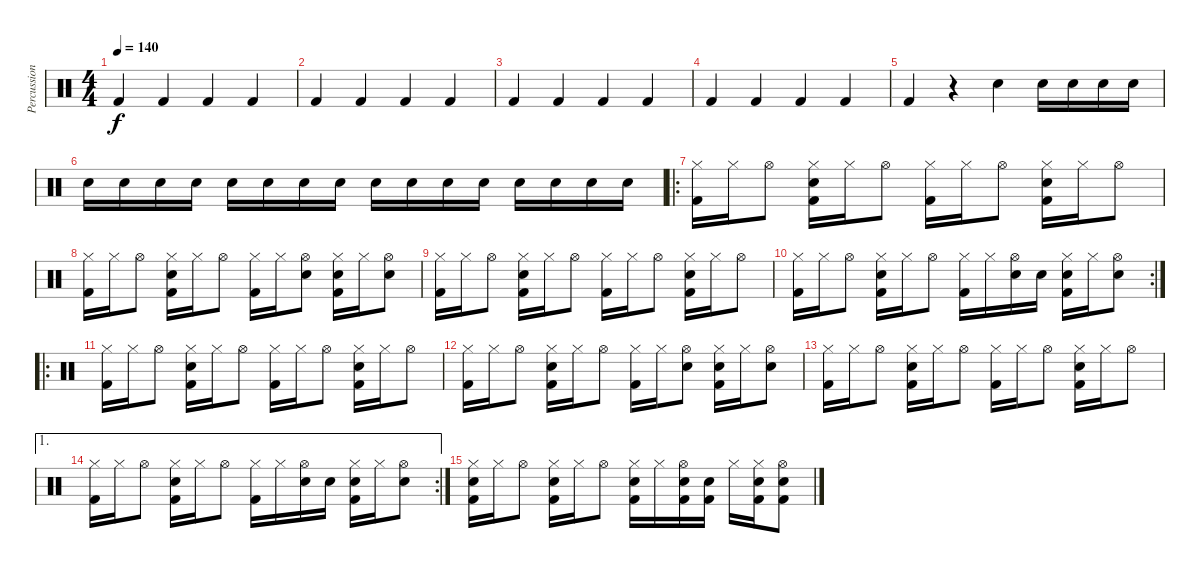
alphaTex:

\track ("Percussion" "Percussion") {instrument percussion}
\staff {score}
\articulation defaults
\ts (4 4)
\tempo 140
\clef neutral
\ks c "Kick (hit) 2".4{dy f} "Kick (hit) 2".4 "Kick (hit) 2".4 "Kick (hit) 2".4
|
"Kick (hit) 2".4 "Kick (hit) 2".4 "Kick (hit) 2".4 "Kick (hit) 2".4 |
"Kick (hit) 2".4 "Kick (hit) 2".4 "Kick (hit) 2".4 "Kick (hit) 2".4 |
"Kick (hit) 2".4 "Kick (hit) 2".4 "Kick (hit) 2".4 "Kick (hit) 2".4 |
"Kick (hit) 2".4 r.4 "Snare (hit) 2".4 "Snare (hit) 2".16{volume 5} "Snare (hit) 2".16{volume 13} "Snare (hit) 2".16 "Snare (hit) 2".16 |
"Snare (hit) 2".16 "Snare (hit) 2".16 "Snare (hit) 2".16 "Snare (hit) 2".16 "Snare (hit) 2".16 "Snare (hit) 2".16 "Snare (hit) 2".16 "Snare (hit) 2".16 "Snare (hit) 2".16 "Snare (hit) 2".16 "Snare (hit) 2".16 "Snare (hit) 2".16 "Snare (hit) 2".16 "Snare (hit) 2".16 "Snare (hit) 2".16 "Snare (hit) 2".16 |
\ro
("Hi-Hat (closed)" "Kick (hit) 2").16 "Hi-Hat (closed)".16 "Hi-Hat (open)".8 ("Hi-Hat (closed)" "Electric Snare (hit)" "Kick (hit) 2").16 "Hi-Hat (closed)".16 "Hi-Hat (open)".8 ("Hi-Hat (closed)" "Kick (hit) 2").16 "Hi-Hat (closed)".16 "Hi-Hat (open)".8 ("Hi-Hat (closed)" "Electric Snare (hit)" "Kick (hit) 2").16 "Hi-Hat (closed)".16 "Hi-Hat (open)".8 |
("Hi-Hat (closed)" "Kick (hit) 2").16 "Hi-Hat (closed)".16 "Hi-Hat (open)".8 ("Hi-Hat (closed)" "Electric Snare (hit)" "Kick (hit) 2").16 "Hi-Hat (closed)".16 "Hi-Hat (open)".8 ("Hi-Hat (closed)" "Kick (hit) 2").16 "Hi-Hat (closed)".16 ("Hi-Hat (open)" "Electric Snare (hit)").8 ("Hi-Hat (closed)" "Electric Snare (hit)" "Kick (hit) 2").16 "Hi-Hat (closed)".16 ("Hi-Hat (open)" "Electric Snare (hit)").8 |
("Hi-Hat (closed)" "Kick (hit) 2").16 "Hi-Hat (closed)".16 "Hi-Hat (open)".8 ("Hi-Hat (closed)" "Electric Snare (hit)" "Kick (hit) 2").16 "Hi-Hat (closed)".16 "Hi-Hat (open)".8 ("Hi-Hat (closed)" "Kick (hit) 2").16 "Hi-Hat (closed)".16 "Hi-Hat (open)".8 ("Hi-Hat (closed)" "Electric Snare (hit)" "Kick (hit) 2").16 "Hi-Hat (closed)".16 "Hi-Hat (open)".8 |
\rc 2
("Hi-Hat (closed)" "Kick (hit) 2").16 "Hi-Hat (closed)".16 "Hi-Hat (open)".8 ("Hi-Hat (closed)" "Electric Snare (hit)" "Kick (hit) 2").16 "Hi-Hat (closed)".16 "Hi-Hat (open)".8 ("Hi-Hat (closed)" "Kick (hit) 2").16 "Hi-Hat (closed)".16 ("Hi-Hat (open)" "Electric Snare (hit)").16 "Electric Snare (hit)".16 ("Hi-Hat (closed)" "Electric Snare (hit)" "Kick (hit) 2").16 "Hi-Hat (closed)".16 ("Hi-Hat (open)" "Electric Snare (hit)").8 |
\ro
("Hi-Hat (closed)" "Kick (hit) 2").16 "Hi-Hat (closed)".16 "Hi-Hat (open)".8 ("Hi-Hat (closed)" "Electric Snare (hit)" "Kick (hit) 2").16 "Hi-Hat (closed)".16 "Hi-Hat (open)".8 ("Hi-Hat (closed)" "Kick (hit) 2").16 "Hi-Hat (closed)".16 "Hi-Hat (open)".8 ("Hi-Hat (closed)" "Electric Snare (hit)" "Kick (hit) 2").16 "Hi-Hat (closed)".16 "Hi-Hat (open)".8 |
("Hi-Hat (closed)" "Kick (hit) 2").16 "Hi-Hat (closed)".16 "Hi-Hat (open)".8 ("Hi-Hat (closed)" "Electric Snare (hit)" "Kick (hit) 2").16 "Hi-Hat (closed)".16 "Hi-Hat (open)".8 ("Hi-Hat (closed)" "Kick (hit) 2").16 "Hi-Hat (closed)".16 ("Hi-Hat (open)" "Electric Snare (hit)").8 ("Hi-Hat (closed)" "Electric Snare (hit)" "Kick (hit) 2").16 "Hi-Hat (closed)".16 ("Hi-Hat (open)" "Electric Snare (hit)").8 |
("Hi-Hat (closed)" "Kick (hit) 2").16 "Hi-Hat (closed)".16 "Hi-Hat (open)".8 ("Hi-Hat (closed)" "Electric Snare (hit)" "Kick (hit) 2").16 "Hi-Hat (closed)".16 "Hi-Hat (open)".8 ("Hi-Hat (closed)" "Kick (hit) 2").16 "Hi-Hat (closed)".16 "Hi-Hat (open)".8 ("Hi-Hat (closed)" "Electric Snare (hit)" "Kick (hit) 2").16 "Hi-Hat (closed)".16 "Hi-Hat (open)".8 |
\ae 1
\rc 2
("Hi-Hat (closed)" "Kick (hit) 2").16 "Hi-Hat (closed)".16 "Hi-Hat (open)".8 ("Hi-Hat (closed)" "Electric Snare (hit)" "Kick (hit) 2").16 "Hi-Hat (closed)".16 "Hi-Hat (open)".8 ("Hi-Hat (closed)" "Kick (hit) 2").16 "Hi-Hat (closed)".16 ("Hi-Hat (open)" "Electric Snare (hit)").16 "Electric Snare (hit)".16 ("Hi-Hat (closed)" "Electric Snare (hit)" "Kick (hit) 2").16 "Hi-Hat (closed)".16 ("Hi-Hat (open)" "Electric Snare (hit)").8 |
("Hi-Hat (closed)" "Electric Snare (hit)" "Kick (hit) 2").16 "Hi-Hat (closed)".16 "Hi-Hat (open)".8 ("Hi-Hat (closed)" "Electric Snare (hit)" "Kick (hit) 2").16 "Hi-Hat (closed)".16 "Hi-Hat (open)".8 ("Hi-Hat (closed)" "Electric Snare (hit)" "Kick (hit) 2").16 "Hi-Hat (closed)".16 ("Hi-Hat (open)" "Electric Snare (hit)" "Kick (hit) 2").16 ("Electric Snare (hit)" "Kick (hit) 2").16 "Hi-Hat (closed)".16 ("Hi-Hat (closed)" "Electric Snare (hit)" "Kick (hit) 2").16 ("Hi-Hat (open)" "Electric Snare (hit)" "Kick (hit) 2").8
